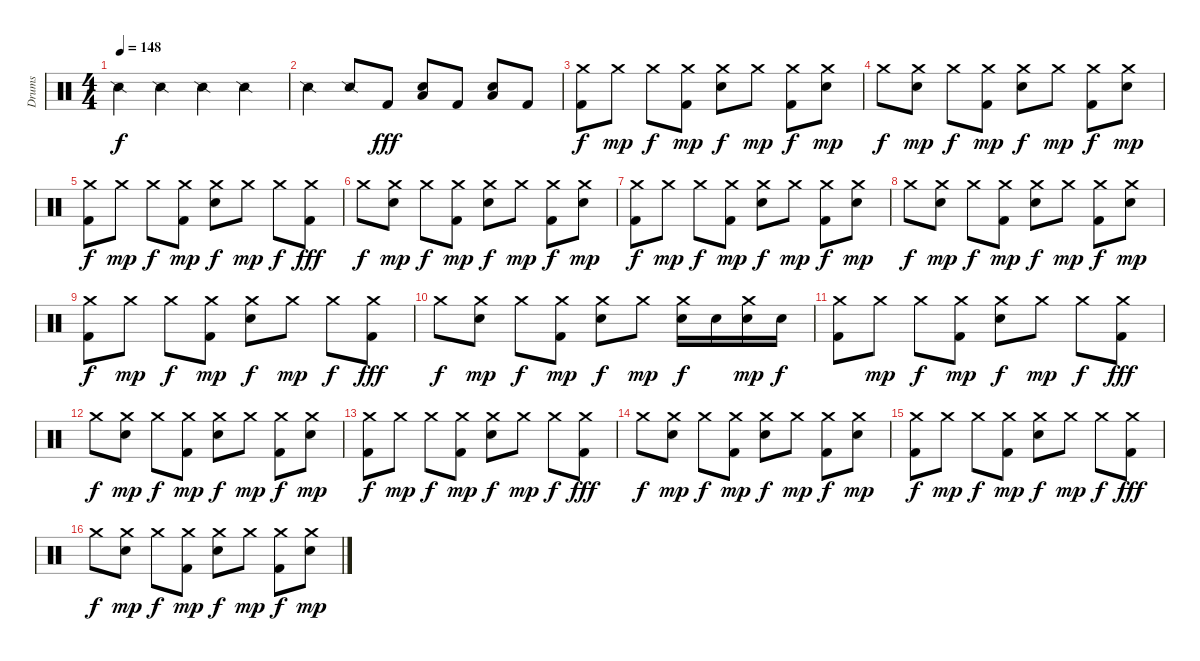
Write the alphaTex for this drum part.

\track ("Drums" "Drums") {instrument percussion}
\staff {score}
\articulation defaults
\ts (4 4)
\tempo 148
\clef neutral
\ks c "Snare (side stick) 2".4{dy f} "Snare (side stick) 2".4 "Snare (side stick) 2".4 "Snare (side stick) 2".4
|
"Snare (side stick) 2".4 "Snare (side stick) 2".8 "Kick (hit) 2".8{dy fff} ("Low Tom (hit)" "Snare (hit) 2").8 "Kick (hit) 2".8 ("Low Tom (hit)" "Snare (hit) 2").8 "Kick (hit) 2".8 |
("Crash medium (hit)" "Kick (hit) 2").8{dy f} "Crash medium (hit)".8{dy mp} "Crash medium (hit)".8{dy f} ("Crash medium (hit)" "Kick (hit) 2").8{dy mp} ("Crash medium (hit)" "Snare (hit) 2").8{dy f} "Crash medium (hit)".8{dy mp} ("Crash medium (hit)" "Kick (hit) 2").8{dy f} ("Crash medium (hit)" "Snare (hit) 2").8{dy mp} |
"Crash medium (hit)".8{dy f} ("Crash medium (hit)" "Snare (hit) 2").8{dy mp} "Crash medium (hit)".8{dy f} ("Crash medium (hit)" "Kick (hit) 2").8{dy mp} ("Crash medium (hit)" "Snare (hit) 2").8{dy f} "Crash medium (hit)".8{dy mp} ("Crash medium (hit)" "Kick (hit) 2").8{dy f} ("Crash medium (hit)" "Snare (hit) 2").8{dy mp} |
("Crash medium (hit)" "Kick (hit) 2").8{dy f} "Crash medium (hit)".8{dy mp} "Crash medium (hit)".8{dy f} ("Crash medium (hit)" "Kick (hit) 2").8{dy mp} ("Crash medium (hit)" "Snare (hit) 2").8{dy f} "Crash medium (hit)".8{dy mp} "Crash medium (hit)".8{dy f} ("Crash medium (hit)" "Kick (hit) 2").8{dy fff} |
"Crash medium (hit)".8{dy f} ("Crash medium (hit)" "Snare (hit) 2").8{dy mp} "Crash medium (hit)".8{dy f} ("Crash medium (hit)" "Kick (hit) 2").8{dy mp} ("Crash medium (hit)" "Snare (hit) 2").8{dy f} "Crash medium (hit)".8{dy mp} ("Crash medium (hit)" "Kick (hit) 2").8{dy f} ("Crash medium (hit)" "Snare (hit) 2").8{dy mp} |
("Crash medium (hit)" "Kick (hit) 2").8{dy f} "Crash medium (hit)".8{dy mp} "Crash medium (hit)".8{dy f} ("Crash medium (hit)" "Kick (hit) 2").8{dy mp} ("Crash medium (hit)" "Snare (hit) 2").8{dy f} "Crash medium (hit)".8{dy mp} ("Crash medium (hit)" "Kick (hit) 2").8{dy f} ("Crash medium (hit)" "Snare (hit) 2").8{dy mp} |
"Crash medium (hit)".8{dy f} ("Crash medium (hit)" "Snare (hit) 2").8{dy mp} "Crash medium (hit)".8{dy f} ("Crash medium (hit)" "Kick (hit) 2").8{dy mp} ("Crash medium (hit)" "Snare (hit) 2").8{dy f} "Crash medium (hit)".8{dy mp} ("Crash medium (hit)" "Kick (hit) 2").8{dy f} ("Crash medium (hit)" "Snare (hit) 2").8{dy mp} |
("Crash medium (hit)" "Kick (hit) 2").8{dy f} "Crash medium (hit)".8{dy mp} "Crash medium (hit)".8{dy f} ("Crash medium (hit)" "Kick (hit) 2").8{dy mp} ("Crash medium (hit)" "Snare (hit) 2").8{dy f} "Crash medium (hit)".8{dy mp} "Crash medium (hit)".8{dy f} ("Crash medium (hit)" "Kick (hit) 2").8{dy fff} |
"Crash medium (hit)".8{dy f} ("Crash medium (hit)" "Snare (hit) 2").8{dy mp} "Crash medium (hit)".8{dy f} ("Crash medium (hit)" "Kick (hit) 2").8{dy mp} ("Crash medium (hit)" "Snare (hit) 2").8{dy f} "Crash medium (hit)".8{dy mp} ("Crash medium (hit)" "Snare (hit) 2").16{dy f} "Snare (hit) 2".16 ("Crash medium (hit)" "Snare (hit) 2").16{dy mp} "Snare (hit) 2".16{dy f} |
("Crash medium (hit)" "Kick (hit) 2").8 "Crash medium (hit)".8{dy mp} "Crash medium (hit)".8{dy f} ("Crash medium (hit)" "Kick (hit) 2").8{dy mp} ("Crash medium (hit)" "Snare (hit) 2").8{dy f} "Crash medium (hit)".8{dy mp} "Crash medium (hit)".8{dy f} ("Crash medium (hit)" "Kick (hit) 2").8{dy fff} |
"Crash medium (hit)".8{dy f} ("Crash medium (hit)" "Snare (hit) 2").8{dy mp} "Crash medium (hit)".8{dy f} ("Crash medium (hit)" "Kick (hit) 2").8{dy mp} ("Crash medium (hit)" "Snare (hit) 2").8{dy f} "Crash medium (hit)".8{dy mp} ("Crash medium (hit)" "Kick (hit) 2").8{dy f} ("Crash medium (hit)" "Snare (hit) 2").8{dy mp} |
("Crash medium (hit)" "Kick (hit) 2").8{dy f} "Crash medium (hit)".8{dy mp} "Crash medium (hit)".8{dy f} ("Crash medium (hit)" "Kick (hit) 2").8{dy mp} ("Crash medium (hit)" "Snare (hit) 2").8{dy f} "Crash medium (hit)".8{dy mp} "Crash medium (hit)".8{dy f} ("Crash medium (hit)" "Kick (hit) 2").8{dy fff} |
"Crash medium (hit)".8{dy f} ("Crash medium (hit)" "Snare (hit) 2").8{dy mp} "Crash medium (hit)".8{dy f} ("Crash medium (hit)" "Kick (hit) 2").8{dy mp} ("Crash medium (hit)" "Snare (hit) 2").8{dy f} "Crash medium (hit)".8{dy mp} ("Crash medium (hit)" "Kick (hit) 2").8{dy f} ("Crash medium (hit)" "Snare (hit) 2").8{dy mp} |
("Crash medium (hit)" "Kick (hit) 2").8{dy f} "Crash medium (hit)".8{dy mp} "Crash medium (hit)".8{dy f} ("Crash medium (hit)" "Kick (hit) 2").8{dy mp} ("Crash medium (hit)" "Snare (hit) 2").8{dy f} "Crash medium (hit)".8{dy mp} "Crash medium (hit)".8{dy f} ("Crash medium (hit)" "Kick (hit) 2").8{dy fff} |
"Crash medium (hit)".8{dy f} ("Crash medium (hit)" "Snare (hit) 2").8{dy mp} "Crash medium (hit)".8{dy f} ("Crash medium (hit)" "Kick (hit) 2").8{dy mp} ("Crash medium (hit)" "Snare (hit) 2").8{dy f} "Crash medium (hit)".8{dy mp} ("Crash medium (hit)" "Kick (hit) 2").8{dy f} ("Crash medium (hit)" "Snare (hit) 2").8{dy mp}
